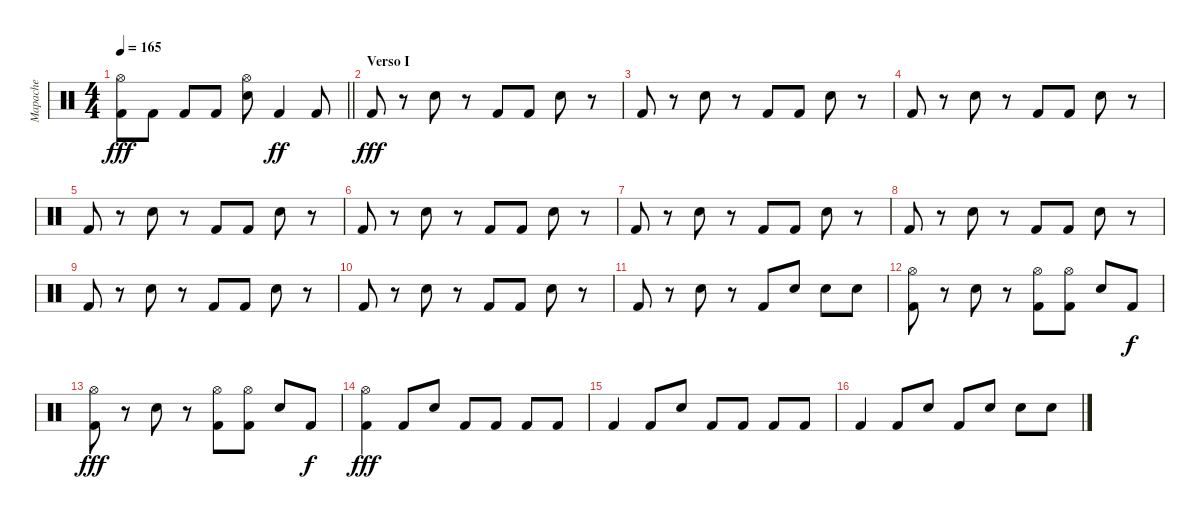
\track ("Mapache" "Mapache") {instrument percussion}
\staff
\articulation defaults
\ts (4 4)
\tempo 165
\clef neutral
\barLineRight lightlight
\ks c
("Hi-Hat (open)" "Kick (hit) 2").8{dy fff} "Kick (hit) 2".8 "Kick (hit) 2".8 "Kick (hit) 2".8 ("Hi-Hat (open)" "Electric Snare (hit)").8 "Kick (hit) 2".4{dy ff} "Kick (hit) 2".8 |
\section ("" "Verso I")
"Kick (hit) 2".8{dy fff} r.8 "Electric Snare (hit)".8 r.8 "Kick (hit) 2".8 "Kick (hit) 2".8 "Electric Snare (hit)".8 r.8 |
"Kick (hit) 2".8 r.8 "Electric Snare (hit)".8 r.8 "Kick (hit) 2".8 "Kick (hit) 2".8 "Electric Snare (hit)".8 r.8 |
"Kick (hit) 2".8 r.8 "Electric Snare (hit)".8 r.8 "Kick (hit) 2".8 "Kick (hit) 2".8 "Electric Snare (hit)".8 r.8 |
"Kick (hit) 2".8 r.8 "Electric Snare (hit)".8 r.8 "Kick (hit) 2".8 "Kick (hit) 2".8 "Electric Snare (hit)".8 r.8 |
"Kick (hit) 2".8 r.8 "Electric Snare (hit)".8 r.8 "Kick (hit) 2".8 "Kick (hit) 2".8 "Electric Snare (hit)".8 r.8 |
"Kick (hit) 2".8 r.8 "Electric Snare (hit)".8 r.8 "Kick (hit) 2".8 "Kick (hit) 2".8 "Electric Snare (hit)".8 r.8 |
"Kick (hit) 2".8 r.8 "Electric Snare (hit)".8 r.8 "Kick (hit) 2".8 "Kick (hit) 2".8 "Electric Snare (hit)".8 r.8 |
"Kick (hit) 2".8 r.8 "Electric Snare (hit)".8 r.8 "Kick (hit) 2".8 "Kick (hit) 2".8 "Electric Snare (hit)".8 r.8 |
"Kick (hit) 2".8 r.8 "Electric Snare (hit)".8 r.8 "Kick (hit) 2".8 "Kick (hit) 2".8 "Electric Snare (hit)".8 r.8 |
"Kick (hit) 2".8 r.8 "Electric Snare (hit)".8 r.8 "Kick (hit) 2".8 "Electric Snare (hit)".8 "Electric Snare (hit)".8 "Electric Snare (hit)".8 |
("Hi-Hat (open)" "Kick (hit) 2").8 r.8 "Electric Snare (hit)".8 r.8 ("Hi-Hat (open)" "Kick (hit) 2").8 ("Hi-Hat (open)" "Kick (hit) 2").8 "Electric Snare (hit)".8 "Kick (hit) 2".8{dy f} |
("Hi-Hat (open)" "Kick (hit) 2").8{dy fff} r.8 "Electric Snare (hit)".8 r.8 ("Hi-Hat (open)" "Kick (hit) 2").8 ("Hi-Hat (open)" "Kick (hit) 2").8 "Electric Snare (hit)".8 "Kick (hit) 2".8{dy f} |
("Hi-Hat (open)" "Kick (hit) 2").4{dy fff} "Kick (hit) 2".8 "Electric Snare (hit)".8 "Kick (hit) 2".8 "Kick (hit) 2".8 "Kick (hit) 2".8 "Kick (hit) 2".8 |
"Kick (hit) 2".4 "Kick (hit) 2".8 "Electric Snare (hit)".8 "Kick (hit) 2".8 "Kick (hit) 2".8 "Kick (hit) 2".8 "Kick (hit) 2".8 |
"Kick (hit) 2".4 "Kick (hit) 2".8 "Electric Snare (hit)".8 "Kick (hit) 2".8 "Electric Snare (hit)".8 "Electric Snare (hit)".8 "Electric Snare (hit)".8
